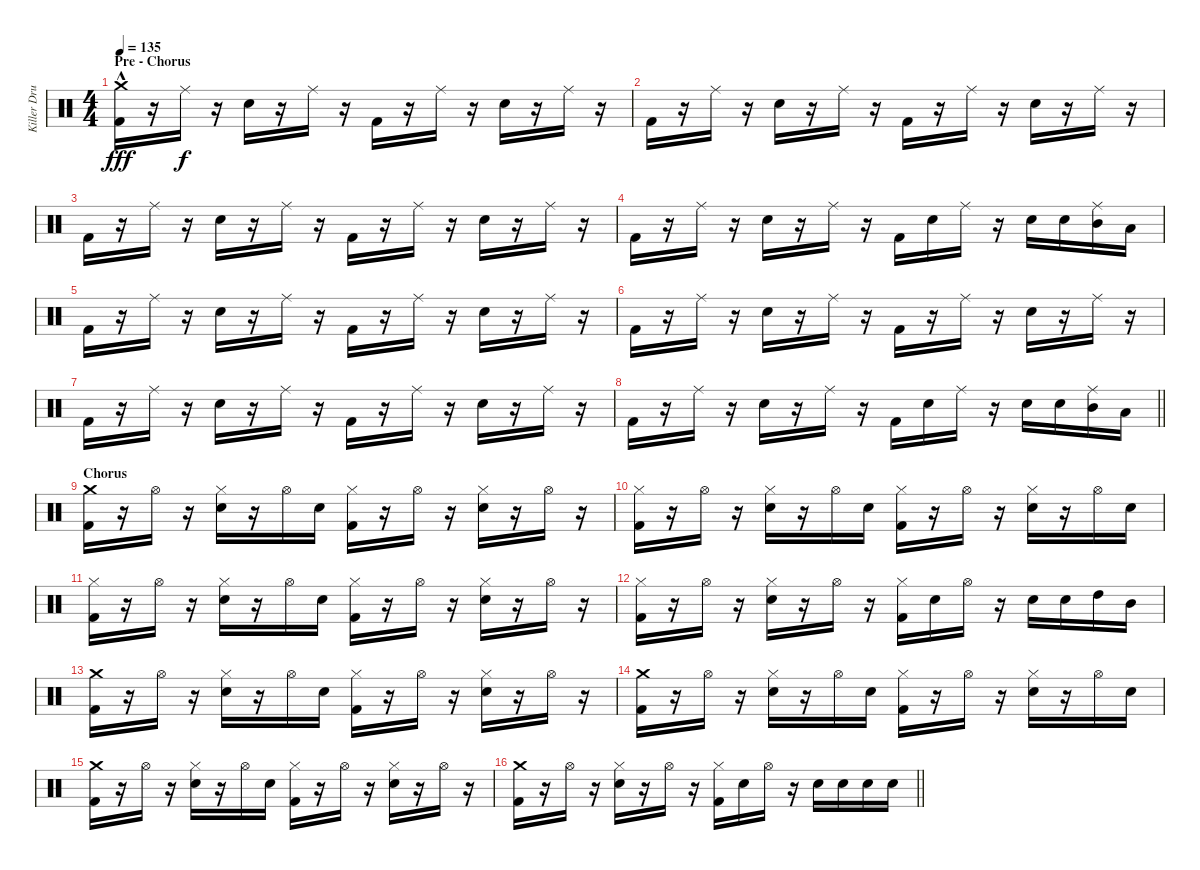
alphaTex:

\track ("Killer Drummer" "Killer Dru") {instrument percussion}
\staff {score}
\articulation defaults
\ts (4 4)
\section ("" "Pre - Chorus")
\tempo 135
\clef neutral
\ks c
("Crash medium (hit)" "Kick (hit) 2"{hac}).16{dy fff} r.16 "Ride (middle)".16{dy f} r.16 "Electric Snare (hit)".16 r.16 "Ride (middle)".16 r.16 "Kick (hit) 2".16 r.16 "Ride (middle)".16 r.16 "Electric Snare (hit)".16 r.16 "Ride (middle)".16 r.16 |
"Kick (hit) 2".16 r.16 "Ride (middle)".16 r.16 "Electric Snare (hit)".16 r.16 "Ride (middle)".16 r.16 "Kick (hit) 2".16 r.16 "Ride (middle)".16 r.16 "Electric Snare (hit)".16 r.16 "Ride (middle)".16 r.16 |
"Kick (hit) 2".16 r.16 "Ride (middle)".16 r.16 "Electric Snare (hit)".16 r.16 "Ride (middle)".16 r.16 "Kick (hit) 2".16 r.16 "Ride (middle)".16 r.16 "Electric Snare (hit)".16 r.16 "Ride (middle)".16 r.16 |
"Kick (hit) 2".16 r.16 "Ride (middle)".16 r.16 "Electric Snare (hit)".16 r.16 "Ride (middle)".16 r.16 "Kick (hit) 2".16 "Electric Snare (hit)".16 "Ride (middle)".16 r.16 "Electric Snare (hit)".16 "Electric Snare (hit)".16 ("Ride (middle)" "Mid Tom (hit)").16 "Low Tom (hit)".16 |
"Kick (hit) 2".16 r.16 "Ride (middle)".16 r.16 "Electric Snare (hit)".16 r.16 "Ride (middle)".16 r.16 "Kick (hit) 2".16 r.16 "Ride (middle)".16 r.16 "Electric Snare (hit)".16 r.16 "Ride (middle)".16 r.16 |
"Kick (hit) 2".16 r.16 "Ride (middle)".16 r.16 "Electric Snare (hit)".16 r.16 "Ride (middle)".16 r.16 "Kick (hit) 2".16 r.16 "Ride (middle)".16 r.16 "Electric Snare (hit)".16 r.16 "Ride (middle)".16 r.16 |
"Kick (hit) 2".16 r.16 "Ride (middle)".16 r.16 "Electric Snare (hit)".16 r.16 "Ride (middle)".16 r.16 "Kick (hit) 2".16 r.16 "Ride (middle)".16 r.16 "Electric Snare (hit)".16 r.16 "Ride (middle)".16 r.16 |
\barLineRight lightlight "Kick (hit) 2".16
r.16 "Ride (middle)".16 r.16 "Electric Snare (hit)".16 r.16 "Ride (middle)".16 r.16 "Kick (hit) 2".16 "Electric Snare (hit)".16 "Ride (middle)".16 r.16 "Electric Snare (hit)".16 "Electric Snare (hit)".16 ("Ride (middle)" "Mid Tom (hit)").16 "Low Tom (hit)".16 |
\section ("" "Chorus")
("Crash medium (hit)" "Kick (hit) 2").16 r.16 "Hi-Hat (open)".16 r.16 ("Hi-Hat (closed)" "Electric Snare (hit)").16 r.16 "Hi-Hat (open)".16 "Electric Snare (hit)".16 ("Hi-Hat (closed)" "Kick (hit) 2").16 r.16 "Hi-Hat (open)".16 r.16 ("Hi-Hat (closed)" "Electric Snare (hit)").16 r.16 "Hi-Hat (open)".16 r.16 |
("Hi-Hat (closed)" "Kick (hit) 2").16 r.16 "Hi-Hat (open)".16 r.16 ("Hi-Hat (closed)" "Electric Snare (hit)").16 r.16 "Hi-Hat (open)".16 "Electric Snare (hit)".16 ("Hi-Hat (closed)" "Kick (hit) 2").16 r.16 "Hi-Hat (open)".16 r.16 ("Hi-Hat (closed)" "Electric Snare (hit)").16 r.16 "Hi-Hat (open)".16 "Electric Snare (hit)".16 |
("Hi-Hat (closed)" "Kick (hit) 2").16 r.16 "Hi-Hat (open)".16 r.16 ("Hi-Hat (closed)" "Electric Snare (hit)").16 r.16 "Hi-Hat (open)".16 "Electric Snare (hit)".16 ("Hi-Hat (closed)" "Kick (hit) 2").16 r.16 "Hi-Hat (open)".16 r.16 ("Hi-Hat (closed)" "Electric Snare (hit)").16 r.16 "Hi-Hat (open)".16 r.16 |
("Hi-Hat (closed)" "Kick (hit) 2").16 r.16 "Hi-Hat (open)".16 r.16 ("Hi-Hat (closed)" "Electric Snare (hit)").16 r.16 "Hi-Hat (open)".16 r.16 ("Hi-Hat (closed)" "Kick (hit) 2").16 "Electric Snare (hit)".16 "Hi-Hat (open)".16 r.16 "Electric Snare (hit)".16 "Electric Snare (hit)".16 "High Tom (hit)".16 "Mid Tom (hit)".16 |
("Crash medium (hit)" "Kick (hit) 2").16 r.16 "Hi-Hat (open)".16 r.16 ("Hi-Hat (closed)" "Electric Snare (hit)").16 r.16 "Hi-Hat (open)".16 "Electric Snare (hit)".16 ("Hi-Hat (closed)" "Kick (hit) 2").16 r.16 "Hi-Hat (open)".16 r.16 ("Hi-Hat (closed)" "Electric Snare (hit)").16 r.16 "Hi-Hat (open)".16 r.16 |
("Crash medium (hit)" "Kick (hit) 2").16 r.16 "Hi-Hat (open)".16 r.16 ("Hi-Hat (closed)" "Electric Snare (hit)").16 r.16 "Hi-Hat (open)".16 "Electric Snare (hit)".16 ("Hi-Hat (closed)" "Kick (hit) 2").16 r.16 "Hi-Hat (open)".16 r.16 ("Hi-Hat (closed)" "Electric Snare (hit)").16 r.16 "Hi-Hat (open)".16 "Electric Snare (hit)".16 |
("Crash medium (hit)" "Kick (hit) 2").16 r.16 "Hi-Hat (open)".16 r.16 ("Hi-Hat (closed)" "Electric Snare (hit)").16 r.16 "Hi-Hat (open)".16 "Electric Snare (hit)".16 ("Hi-Hat (closed)" "Kick (hit) 2").16 r.16 "Hi-Hat (open)".16 r.16 ("Hi-Hat (closed)" "Electric Snare (hit)").16 r.16 "Hi-Hat (open)".16 r.16 |
\barLineRight lightlight
("Crash medium (hit)" "Kick (hit) 2").16 r.16 "Hi-Hat (open)".16 r.16 ("Hi-Hat (closed)" "Electric Snare (hit)").16 r.16 "Hi-Hat (open)".16 r.16 ("Hi-Hat (closed)" "Kick (hit) 2").16 "Electric Snare (hit)".16 "Hi-Hat (open)".16 r.16 "Electric Snare (hit)".16 "Electric Snare (hit)".16 "Electric Snare (hit)".16 "Electric Snare (hit)".16
